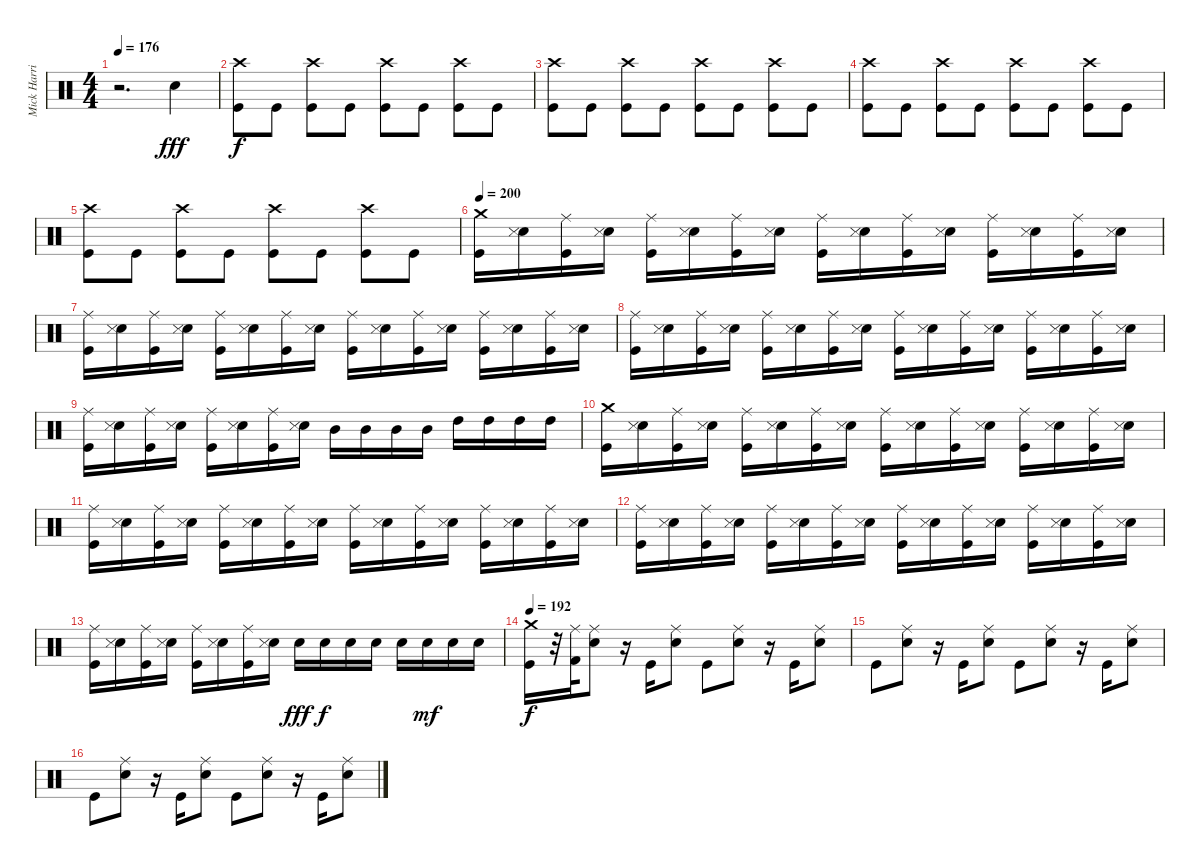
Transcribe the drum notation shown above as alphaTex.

\track ("Mick Harris (Drums)" "Mick Harri") {instrument percussion}
\staff {score}
\articulation defaults
\ts (4 4)
\tempo 176
\clef neutral
\ks c
r.2{d dy fff} "Electric Snare (hit)".4 |
("Kick (hit)" "Crash high (hit)").8{dy f} "Kick (hit)".8 ("Kick (hit)" "Crash high (hit)").8 "Kick (hit)".8 ("Kick (hit)" "Crash high (hit)").8 "Kick (hit)".8 ("Kick (hit)" "Crash high (hit)").8 "Kick (hit)".8 |
("Kick (hit)" "Crash high (hit)").8 "Kick (hit)".8 ("Kick (hit)" "Crash high (hit)").8 "Kick (hit)".8 ("Kick (hit)" "Crash high (hit)").8 "Kick (hit)".8 ("Kick (hit)" "Crash high (hit)").8 "Kick (hit)".8 |
("Kick (hit)" "Crash high (hit)").8 "Kick (hit)".8 ("Kick (hit)" "Crash high (hit)").8 "Kick (hit)".8 ("Kick (hit)" "Crash high (hit)").8 "Kick (hit)".8 ("Kick (hit)" "Crash high (hit)").8 "Kick (hit)".8 |
("Kick (hit)" "Crash high (hit)").8 "Kick (hit)".8 ("Kick (hit)" "Crash high (hit)").8 "Kick (hit)".8 ("Kick (hit)" "Crash high (hit)").8 "Kick (hit)".8 ("Kick (hit)" "Crash high (hit)").8 "Kick (hit)".8 |
\tempo 200
("Kick (hit)" "Crash medium (hit)").16 ("Electric Snare (hit)" "Snare (side stick) 3").16 ("Kick (hit)" "Ride (middle)").16 ("Electric Snare (hit)" "Snare (side stick) 3").16 ("Kick (hit)" "Ride (middle)").16 ("Electric Snare (hit)" "Snare (side stick) 3").16 ("Kick (hit)" "Ride (middle)").16 ("Electric Snare (hit)" "Snare (side stick) 3").16 ("Kick (hit)" "Ride (middle)").16 ("Electric Snare (hit)" "Snare (side stick) 3").16 ("Kick (hit)" "Ride (middle)").16 ("Electric Snare (hit)" "Snare (side stick) 3").16 ("Kick (hit)" "Ride (middle)").16 ("Electric Snare (hit)" "Snare (side stick) 3").16 ("Kick (hit)" "Ride (middle)").16 ("Electric Snare (hit)" "Snare (side stick) 3").16 |
("Kick (hit)" "Ride (middle)").16 ("Electric Snare (hit)" "Snare (side stick) 3").16 ("Kick (hit)" "Ride (middle)").16 ("Electric Snare (hit)" "Snare (side stick) 3").16 ("Kick (hit)" "Ride (middle)").16 ("Electric Snare (hit)" "Snare (side stick) 3").16 ("Kick (hit)" "Ride (middle)").16 ("Electric Snare (hit)" "Snare (side stick) 3").16 ("Kick (hit)" "Ride (middle)").16 ("Electric Snare (hit)" "Snare (side stick) 3").16 ("Kick (hit)" "Ride (middle)").16 ("Electric Snare (hit)" "Snare (side stick) 3").16 ("Kick (hit)" "Ride (middle)").16 ("Electric Snare (hit)" "Snare (side stick) 3").16 ("Kick (hit)" "Ride (middle)").16 ("Electric Snare (hit)" "Snare (side stick) 3").16 |
("Kick (hit)" "Ride (middle)").16 ("Electric Snare (hit)" "Snare (side stick) 3").16 ("Kick (hit)" "Ride (middle)").16 ("Electric Snare (hit)" "Snare (side stick) 3").16 ("Kick (hit)" "Ride (middle)").16 ("Electric Snare (hit)" "Snare (side stick) 3").16 ("Kick (hit)" "Ride (middle)").16 ("Electric Snare (hit)" "Snare (side stick) 3").16 ("Kick (hit)" "Ride (middle)").16 ("Electric Snare (hit)" "Snare (side stick) 3").16 ("Kick (hit)" "Ride (middle)").16 ("Electric Snare (hit)" "Snare (side stick) 3").16 ("Kick (hit)" "Ride (middle)").16 ("Electric Snare (hit)" "Snare (side stick) 3").16 ("Kick (hit)" "Ride (middle)").16 ("Electric Snare (hit)" "Snare (side stick) 3").16 |
("Kick (hit)" "Ride (middle)").16 ("Electric Snare (hit)" "Snare (side stick) 3").16 ("Kick (hit)" "Ride (middle)").16 ("Electric Snare (hit)" "Snare (side stick) 3").16 ("Kick (hit)" "Ride (middle)").16 ("Electric Snare (hit)" "Snare (side stick) 3").16 ("Kick (hit)" "Ride (middle)").16 ("Electric Snare (hit)" "Snare (side stick) 3").16 "Mid Tom (hit)".16 "Mid Tom (hit)".16 "Mid Tom (hit)".16 "Mid Tom (hit)".16 "High Tom (hit)".16 "High Tom (hit)".16 "High Tom (hit)".16 "High Tom (hit)".16 |
("Kick (hit)" "Crash medium (hit)").16 ("Electric Snare (hit)" "Snare (side stick) 3").16 ("Kick (hit)" "Ride (middle)").16 ("Electric Snare (hit)" "Snare (side stick) 3").16 ("Kick (hit)" "Ride (middle)").16 ("Electric Snare (hit)" "Snare (side stick) 3").16 ("Kick (hit)" "Ride (middle)").16 ("Electric Snare (hit)" "Snare (side stick) 3").16 ("Kick (hit)" "Ride (middle)").16 ("Electric Snare (hit)" "Snare (side stick) 3").16 ("Kick (hit)" "Ride (middle)").16 ("Electric Snare (hit)" "Snare (side stick) 3").16 ("Kick (hit)" "Ride (middle)").16 ("Electric Snare (hit)" "Snare (side stick) 3").16 ("Kick (hit)" "Ride (middle)").16 ("Electric Snare (hit)" "Snare (side stick) 3").16 |
("Kick (hit)" "Ride (middle)").16 ("Electric Snare (hit)" "Snare (side stick) 3").16 ("Kick (hit)" "Ride (middle)").16 ("Electric Snare (hit)" "Snare (side stick) 3").16 ("Kick (hit)" "Ride (middle)").16 ("Electric Snare (hit)" "Snare (side stick) 3").16 ("Kick (hit)" "Ride (middle)").16 ("Electric Snare (hit)" "Snare (side stick) 3").16 ("Kick (hit)" "Ride (middle)").16 ("Electric Snare (hit)" "Snare (side stick) 3").16 ("Kick (hit)" "Ride (middle)").16 ("Electric Snare (hit)" "Snare (side stick) 3").16 ("Kick (hit)" "Ride (middle)").16 ("Electric Snare (hit)" "Snare (side stick) 3").16 ("Kick (hit)" "Ride (middle)").16 ("Electric Snare (hit)" "Snare (side stick) 3").16 |
("Kick (hit)" "Ride (middle)").16 ("Electric Snare (hit)" "Snare (side stick) 3").16 ("Kick (hit)" "Ride (middle)").16 ("Electric Snare (hit)" "Snare (side stick) 3").16 ("Kick (hit)" "Ride (middle)").16 ("Electric Snare (hit)" "Snare (side stick) 3").16 ("Kick (hit)" "Ride (middle)").16 ("Electric Snare (hit)" "Snare (side stick) 3").16 ("Kick (hit)" "Ride (middle)").16 ("Electric Snare (hit)" "Snare (side stick) 3").16 ("Kick (hit)" "Ride (middle)").16 ("Electric Snare (hit)" "Snare (side stick) 3").16 ("Kick (hit)" "Ride (middle)").16 ("Electric Snare (hit)" "Snare (side stick) 3").16 ("Kick (hit)" "Ride (middle)").16 ("Electric Snare (hit)" "Snare (side stick) 3").16 |
("Kick (hit)" "Ride (middle)").16 ("Electric Snare (hit)" "Snare (side stick) 3").16 ("Kick (hit)" "Ride (middle)").16 ("Electric Snare (hit)" "Snare (side stick) 3").16 ("Kick (hit)" "Ride (middle)").16 ("Electric Snare (hit)" "Snare (side stick) 3").16 ("Kick (hit)" "Ride (middle)").16 ("Electric Snare (hit)" "Snare (side stick) 3").16 "Electric Snare (hit)".16{dy fff} "Electric Snare (hit)".16{dy f} "Electric Snare (hit)".16 "Electric Snare (hit)".16 "Snare (hit) 2".16 "Snare (hit) 2".16{dy mf} "Snare (hit) 2".16 "Snare (hit) 2".16 |
\tempo 192
("Kick (hit)" "Crash medium (hit)").16{dy f} r.32 ("Kick (hit) 2" "Ride (middle)").32 ("Electric Snare (hit)" "Ride (middle)").8 r.16 "Kick (hit)".16 ("Electric Snare (hit)" "Ride (middle)").8 "Kick (hit)".8 ("Electric Snare (hit)" "Ride (middle)").8 r.16 "Kick (hit)".16 ("Electric Snare (hit)" "Ride (middle)").8 |
"Kick (hit)".8 ("Electric Snare (hit)" "Ride (middle)").8 r.16 "Kick (hit)".16 ("Electric Snare (hit)" "Ride (middle)").8 "Kick (hit)".8 ("Electric Snare (hit)" "Ride (middle)").8 r.16 "Kick (hit)".16 ("Electric Snare (hit)" "Ride (middle)").8 |
"Kick (hit)".8 ("Electric Snare (hit)" "Ride (middle)").8 r.16 "Kick (hit)".16 ("Electric Snare (hit)" "Ride (middle)").8 "Kick (hit)".8 ("Electric Snare (hit)" "Ride (middle)").8 r.16 "Kick (hit)".16 ("Electric Snare (hit)" "Ride (middle)").8
